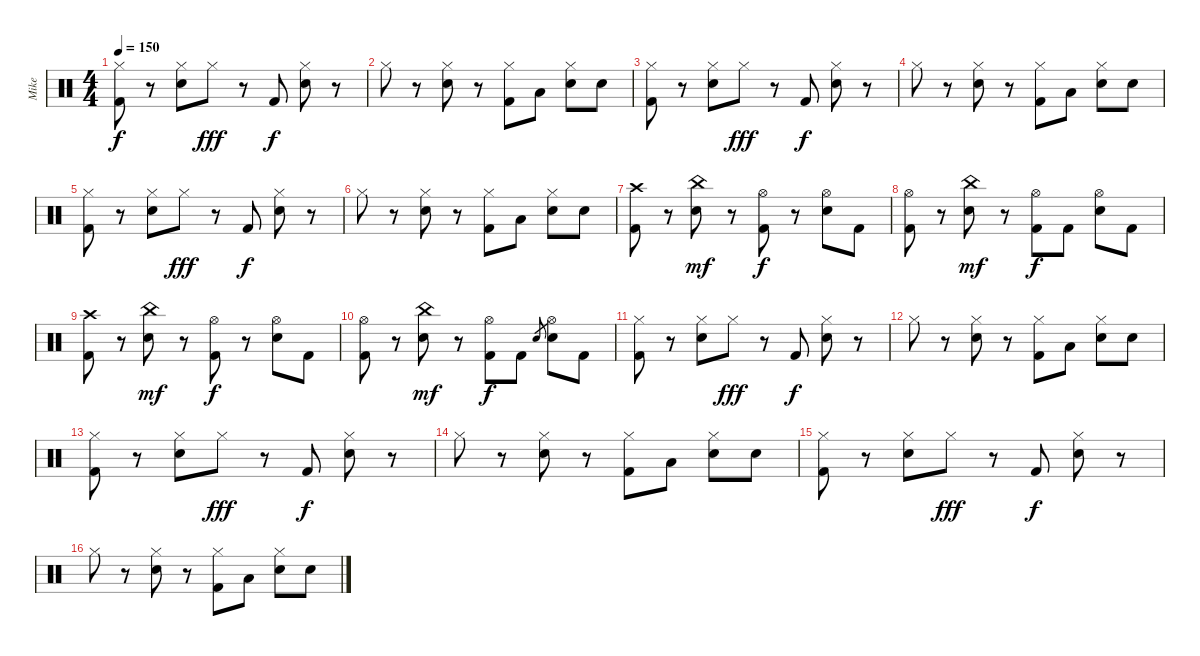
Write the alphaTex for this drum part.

\track ("Mike" "Mike") {instrument percussion}
\staff {score}
\articulation defaults
\ts (4 4)
\tempo 150
\clef neutral
\ks c
("Hi-Hat (closed)" "Kick (hit) 2").8{dy f} r.8 ("Hi-Hat (closed)" "Snare (hit) 2").8 "Hi-Hat (closed)".8{dy fff} r.8 "Kick (hit) 2".8{dy f} ("Hi-Hat (closed)" "Snare (hit) 2").8 r.8 |
"Hi-Hat (closed)".8 r.8 ("Hi-Hat (closed)" "Snare (hit) 2").8 r.8 ("Hi-Hat (closed)" "Kick (hit) 2").8 "Low Tom (hit)".8 ("Hi-Hat (closed)" "Snare (hit) 2").8 "Snare (hit) 2".8 |
("Hi-Hat (closed)" "Kick (hit) 2").8 r.8 ("Hi-Hat (closed)" "Snare (hit) 2").8 "Hi-Hat (closed)".8{dy fff} r.8 "Kick (hit) 2".8{dy f} ("Hi-Hat (closed)" "Snare (hit) 2").8 r.8 |
"Hi-Hat (closed)".8 r.8 ("Hi-Hat (closed)" "Snare (hit) 2").8 r.8 ("Hi-Hat (closed)" "Kick (hit) 2").8 "Low Tom (hit)".8 ("Hi-Hat (closed)" "Snare (hit) 2").8 "Snare (hit) 2".8 |
("Hi-Hat (closed)" "Kick (hit) 2").8 r.8 ("Hi-Hat (closed)" "Snare (hit) 2").8 "Hi-Hat (closed)".8{dy fff} r.8 "Kick (hit) 2".8{dy f} ("Hi-Hat (closed)" "Snare (hit) 2").8 r.8 |
"Hi-Hat (closed)".8 r.8 ("Hi-Hat (closed)" "Snare (hit) 2").8 r.8 ("Hi-Hat (closed)" "Kick (hit) 2").8 "Low Tom (hit)".8 ("Hi-Hat (closed)" "Snare (hit) 2").8 "Snare (hit) 2".8 |
("Crash high (hit)" "Kick (hit) 2").8 r.8 ("China (hit)" "Snare (hit) 2").8{dy mf} r.8 ("Hi-Hat (open)" "Kick (hit) 2").8{dy f} r.8 ("Hi-Hat (open)" "Snare (hit) 2").8 "Kick (hit) 2".8 |
("Hi-Hat (open)" "Kick (hit) 2").8 r.8 ("China (hit)" "Snare (hit) 2").8{dy mf} r.8 ("Hi-Hat (open)" "Kick (hit) 2").8{dy f} "Kick (hit) 2".8 ("Hi-Hat (open)" "Snare (hit) 2").8 "Kick (hit) 2".8 |
("Crash high (hit)" "Kick (hit) 2").8 r.8 ("China (hit)" "Snare (hit) 2").8{dy mf} r.8 ("Hi-Hat (open)" "Kick (hit) 2").8{dy f} r.8 ("Hi-Hat (open)" "Snare (hit) 2").8 "Kick (hit) 2".8 |
("Hi-Hat (open)" "Kick (hit) 2").8 r.8 ("China (hit)" "Snare (hit) 2").8{dy mf} r.8 ("Hi-Hat (open)" "Kick (hit) 2").8{dy f} "Kick (hit) 2".8 "Snare (hit) 2".8{gr} ("Hi-Hat (open)" "Snare (hit) 2").8 "Kick (hit) 2".8 |
("Hi-Hat (closed)" "Kick (hit) 2").8 r.8 ("Hi-Hat (closed)" "Snare (hit) 2").8 "Hi-Hat (closed)".8{dy fff} r.8 "Kick (hit) 2".8{dy f} ("Hi-Hat (closed)" "Snare (hit) 2").8 r.8 |
"Hi-Hat (closed)".8 r.8 ("Hi-Hat (closed)" "Snare (hit) 2").8 r.8 ("Hi-Hat (closed)" "Kick (hit) 2").8 "Low Tom (hit)".8 ("Hi-Hat (closed)" "Snare (hit) 2").8 "Snare (hit) 2".8 |
("Hi-Hat (closed)" "Kick (hit) 2").8 r.8 ("Hi-Hat (closed)" "Snare (hit) 2").8 "Hi-Hat (closed)".8{dy fff} r.8 "Kick (hit) 2".8{dy f} ("Hi-Hat (closed)" "Snare (hit) 2").8 r.8 |
"Hi-Hat (closed)".8 r.8 ("Hi-Hat (closed)" "Snare (hit) 2").8 r.8 ("Hi-Hat (closed)" "Kick (hit) 2").8 "Low Tom (hit)".8 ("Hi-Hat (closed)" "Snare (hit) 2").8 "Snare (hit) 2".8 |
("Hi-Hat (closed)" "Kick (hit) 2").8 r.8 ("Hi-Hat (closed)" "Snare (hit) 2").8 "Hi-Hat (closed)".8{dy fff} r.8 "Kick (hit) 2".8{dy f} ("Hi-Hat (closed)" "Snare (hit) 2").8 r.8 |
"Hi-Hat (closed)".8 r.8 ("Hi-Hat (closed)" "Snare (hit) 2").8 r.8 ("Hi-Hat (closed)" "Kick (hit) 2").8 "Low Tom (hit)".8 ("Hi-Hat (closed)" "Snare (hit) 2").8 "Snare (hit) 2".8
